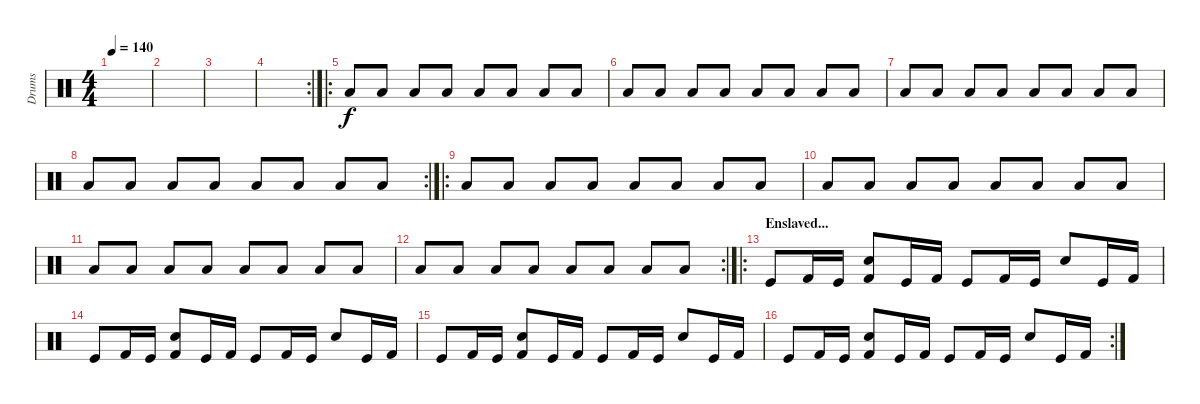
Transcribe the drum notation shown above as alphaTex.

\track ("Drums" "Drums") {instrument percussion}
\staff {score}
\articulation defaults
\ts (4 4)
\tempo 140
\clef neutral
\ks c
|
|
|
\rc 2
|
\ro "Low Tom (hit)".8 "Low Tom (hit)".8 "Low Tom (hit)".8 "Low Tom (hit)".8 "Low Tom (hit)".8 "Low Tom (hit)".8 "Low Tom (hit)".8 "Low Tom (hit)".8
|
"Low Tom (hit)".8 "Low Tom (hit)".8 "Low Tom (hit)".8 "Low Tom (hit)".8 "Low Tom (hit)".8 "Low Tom (hit)".8 "Low Tom (hit)".8 "Low Tom (hit)".8 |
"Low Tom (hit)".8 "Low Tom (hit)".8 "Low Tom (hit)".8 "Low Tom (hit)".8 "Low Tom (hit)".8 "Low Tom (hit)".8 "Low Tom (hit)".8 "Low Tom (hit)".8 |
\rc 2 "Low Tom (hit)".8 "Low Tom (hit)".8 "Low Tom (hit)".8 "Low Tom (hit)".8 "Low Tom (hit)".8 "Low Tom (hit)".8 "Low Tom (hit)".8 "Low Tom (hit)".8
|
\ro "Low Tom (hit)".8{dy f} "Low Tom (hit)".8 "Low Tom (hit)".8 "Low Tom (hit)".8 "Low Tom (hit)".8 "Low Tom (hit)".8 "Low Tom (hit)".8 "Low Tom (hit)".8
|
"Low Tom (hit)".8 "Low Tom (hit)".8 "Low Tom (hit)".8 "Low Tom (hit)".8 "Low Tom (hit)".8 "Low Tom (hit)".8 "Low Tom (hit)".8 "Low Tom (hit)".8 |
"Low Tom (hit)".8 "Low Tom (hit)".8 "Low Tom (hit)".8 "Low Tom (hit)".8 "Low Tom (hit)".8 "Low Tom (hit)".8 "Low Tom (hit)".8 "Low Tom (hit)".8 |
\rc 2 "Low Tom (hit)".8 "Low Tom (hit)".8 "Low Tom (hit)".8 "Low Tom (hit)".8 "Low Tom (hit)".8 "Low Tom (hit)".8 "Low Tom (hit)".8 "Low Tom (hit)".8
|
\ro
\section ("" "Enslaved...")
"Kick (hit)".8 "Kick (hit) 2".16 "Kick (hit)".16 ("Snare (hit) 2" "Kick (hit) 2").8 "Kick (hit)".16 "Kick (hit) 2".16 "Kick (hit)".8 "Kick (hit) 2".16 "Kick (hit)".16 "Snare (hit) 2".8 "Kick (hit)".16 "Kick (hit) 2".16 |
"Kick (hit)".8 "Kick (hit) 2".16 "Kick (hit)".16 ("Snare (hit) 2" "Kick (hit) 2").8 "Kick (hit)".16 "Kick (hit) 2".16 "Kick (hit)".8 "Kick (hit) 2".16 "Kick (hit)".16 "Snare (hit) 2".8 "Kick (hit)".16 "Kick (hit) 2".16 |
"Kick (hit)".8 "Kick (hit) 2".16 "Kick (hit)".16 ("Snare (hit) 2" "Kick (hit) 2").8 "Kick (hit)".16 "Kick (hit) 2".16 "Kick (hit)".8 "Kick (hit) 2".16 "Kick (hit)".16 "Snare (hit) 2".8 "Kick (hit)".16 "Kick (hit) 2".16 |
\rc 2 "Kick (hit)".8 "Kick (hit) 2".16 "Kick (hit)".16
("Snare (hit) 2" "Kick (hit) 2").8 "Kick (hit)".16 "Kick (hit) 2".16 "Kick (hit)".8 "Kick (hit) 2".16 "Kick (hit)".16 "Snare (hit) 2".8 "Kick (hit)".16 "Kick (hit) 2".16
